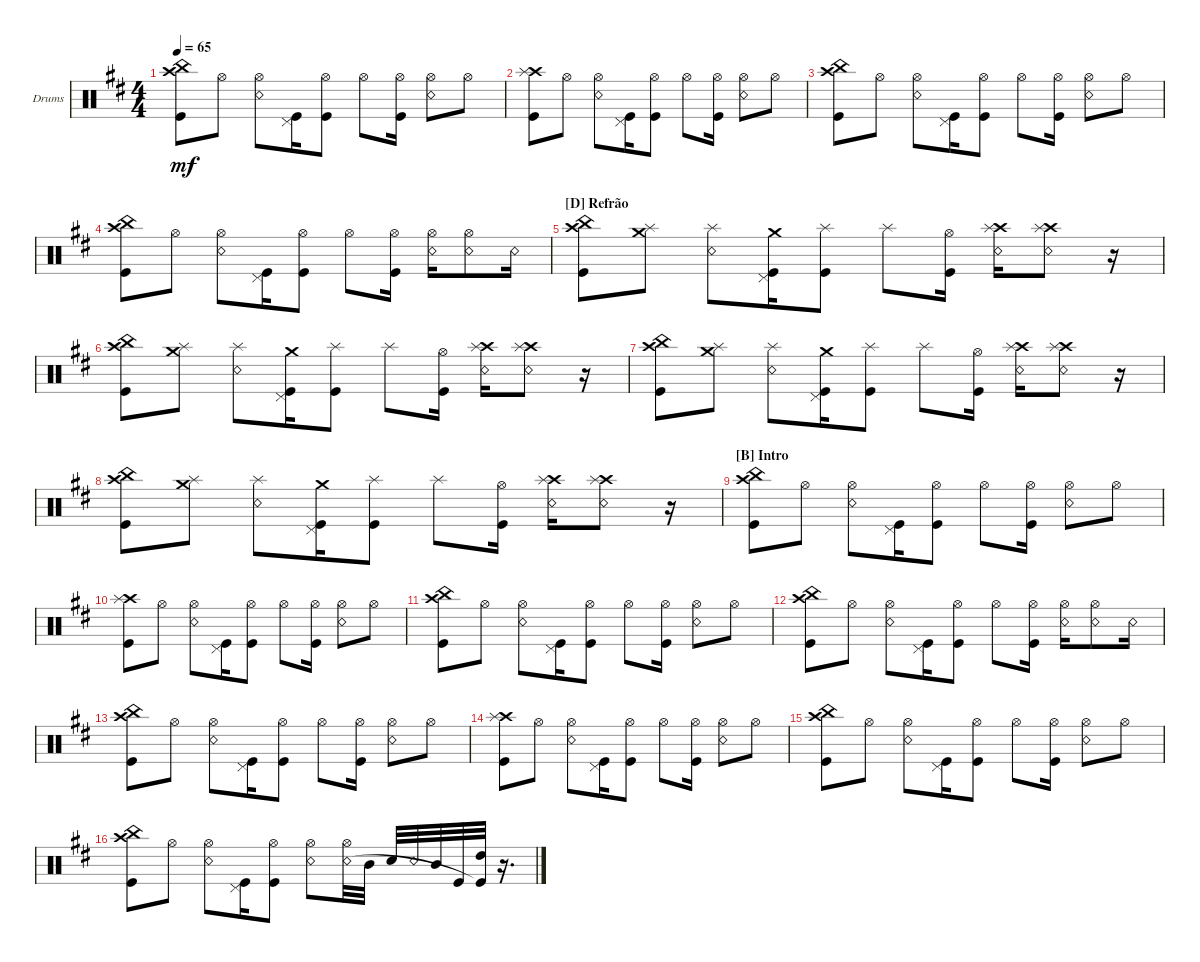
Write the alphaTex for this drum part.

\defaultSystemsLayout 4
\bracketExtendMode groupsimilarinstruments
\firstSystemTrackNameOrientation horizontal
\otherSystemsTrackNameOrientation horizontal
\track ("Bateria" "Drums") {multiBarRest instrument percussion}
\staff {score}
\articulation defaults
\ts (4 4)
\tempo 65
\clef neutral
\ks d
("Kick (hit)" "Crash high (hit)" "China (hit)").8{dy mf} "Hi-Hat (open)".8 ("Hi-Hat (open)" "Snare (rim shot)").8 ("Kick (hit)" "Pedal Hi-Hat (hit)").16 ("Hi-Hat (open)" "Kick (hit)").8 "Hi-Hat (open)".8 ("Hi-Hat (open)" "Kick (hit)").16 ("Hi-Hat (open)" "Snare (rim shot)").8 "Hi-Hat (open)".8 |
("Kick (hit)" "Crash high (hit)" "Splash (hit)").8 "Hi-Hat (open)".8 ("Hi-Hat (open)" "Snare (rim shot)").8 ("Kick (hit)" "Pedal Hi-Hat (hit)").16 ("Hi-Hat (open)" "Kick (hit)").8 "Hi-Hat (open)".8 ("Hi-Hat (open)" "Kick (hit)").16 ("Hi-Hat (open)" "Snare (rim shot)").8 "Hi-Hat (open)".8 |
("Kick (hit)" "Crash high (hit)" "China (hit)").8 "Hi-Hat (open)".8 ("Hi-Hat (open)" "Snare (rim shot)").8 ("Kick (hit)" "Pedal Hi-Hat (hit)").16 ("Hi-Hat (open)" "Kick (hit)").8 "Hi-Hat (open)".8 ("Hi-Hat (open)" "Kick (hit)").16 ("Hi-Hat (open)" "Snare (rim shot)").8 "Hi-Hat (open)".8 |
("Kick (hit)" "Crash high (hit)" "China (hit)").8 "Hi-Hat (open)".8 ("Hi-Hat (open)" "Snare (rim shot)").8 ("Kick (hit)" "Pedal Hi-Hat (hit)").16 ("Hi-Hat (open)" "Kick (hit)").8 "Hi-Hat (open)".8 ("Hi-Hat (open)" "Kick (hit)").16 ("Hi-Hat (open)" "Snare (rim shot)").16 ("Hi-Hat (open)" "Snare (rim shot)").8 "Snare (rim shot)".16 |
\section ("D" "Refrão")
("Kick (hit)" "Crash high (hit)" "China (hit)").8 ("Splash (hit)" "Crash medium (hit)").8 ("Snare (rim shot)" "Splash (hit)").8 ("Kick (hit)" "Pedal Hi-Hat (hit)" "Crash medium (hit)").16 ("Kick (hit)" "Splash (hit)").8 "Splash (hit)".8 ("Hi-Hat (open)" "Kick (hit)").16 ("Snare (rim shot)" "Crash high (hit)" "Splash (hit)").16 ("Crash high (hit)" "Splash (hit)" "Snare (rim shot)").8 r.16 |
("Kick (hit)" "Crash high (hit)" "China (hit)").8 ("Splash (hit)" "Crash medium (hit)").8 ("Snare (rim shot)" "Splash (hit)").8 ("Kick (hit)" "Pedal Hi-Hat (hit)" "Crash medium (hit)").16 ("Kick (hit)" "Splash (hit)").8 "Splash (hit)".8 ("Hi-Hat (open)" "Kick (hit)").16 ("Snare (rim shot)" "Crash high (hit)" "Splash (hit)").16 ("Crash high (hit)" "Splash (hit)" "Snare (rim shot)").8 r.16 |
("Kick (hit)" "Crash high (hit)" "China (hit)").8 ("Splash (hit)" "Crash medium (hit)").8 ("Snare (rim shot)" "Splash (hit)").8 ("Kick (hit)" "Pedal Hi-Hat (hit)" "Crash medium (hit)").16 ("Kick (hit)" "Splash (hit)").8 "Splash (hit)".8 ("Hi-Hat (open)" "Kick (hit)").16 ("Snare (rim shot)" "Crash high (hit)" "Splash (hit)").16 ("Crash high (hit)" "Splash (hit)" "Snare (rim shot)").8 r.16 |
("Kick (hit)" "Crash high (hit)" "China (hit)").8 ("Splash (hit)" "Crash medium (hit)").8 ("Snare (rim shot)" "Splash (hit)").8 ("Kick (hit)" "Pedal Hi-Hat (hit)" "Crash medium (hit)").16 ("Kick (hit)" "Splash (hit)").8 "Splash (hit)".8 ("Hi-Hat (open)" "Kick (hit)").16 ("Snare (rim shot)" "Crash high (hit)" "Splash (hit)").16 ("Crash high (hit)" "Splash (hit)" "Snare (rim shot)").8 r.16 |
\section ("B" "Intro")
("Kick (hit)" "Crash high (hit)" "China (hit)").8 "Hi-Hat (open)".8 ("Hi-Hat (open)" "Snare (rim shot)").8 ("Kick (hit)" "Pedal Hi-Hat (hit)").16 ("Hi-Hat (open)" "Kick (hit)").8 "Hi-Hat (open)".8 ("Hi-Hat (open)" "Kick (hit)").16 ("Hi-Hat (open)" "Snare (rim shot)").8 "Hi-Hat (open)".8 |
("Kick (hit)" "Crash high (hit)" "Splash (hit)").8 "Hi-Hat (open)".8 ("Hi-Hat (open)" "Snare (rim shot)").8 ("Kick (hit)" "Pedal Hi-Hat (hit)").16 ("Hi-Hat (open)" "Kick (hit)").8 "Hi-Hat (open)".8 ("Hi-Hat (open)" "Kick (hit)").16 ("Hi-Hat (open)" "Snare (rim shot)").8 "Hi-Hat (open)".8 |
("Kick (hit)" "Crash high (hit)" "China (hit)").8 "Hi-Hat (open)".8 ("Hi-Hat (open)" "Snare (rim shot)").8 ("Kick (hit)" "Pedal Hi-Hat (hit)").16 ("Hi-Hat (open)" "Kick (hit)").8 "Hi-Hat (open)".8 ("Hi-Hat (open)" "Kick (hit)").16 ("Hi-Hat (open)" "Snare (rim shot)").8 "Hi-Hat (open)".8 |
("Kick (hit)" "Crash high (hit)" "China (hit)").8 "Hi-Hat (open)".8 ("Hi-Hat (open)" "Snare (rim shot)").8 ("Kick (hit)" "Pedal Hi-Hat (hit)").16 ("Hi-Hat (open)" "Kick (hit)").8 "Hi-Hat (open)".8 ("Hi-Hat (open)" "Kick (hit)").16 ("Hi-Hat (open)" "Snare (rim shot)").16 ("Hi-Hat (open)" "Snare (rim shot)").8 "Snare (rim shot)".16 |
("Kick (hit)" "Crash high (hit)" "China (hit)").8 "Hi-Hat (open)".8 ("Hi-Hat (open)" "Snare (rim shot)").8 ("Kick (hit)" "Pedal Hi-Hat (hit)").16 ("Hi-Hat (open)" "Kick (hit)").8 "Hi-Hat (open)".8 ("Hi-Hat (open)" "Kick (hit)").16 ("Hi-Hat (open)" "Snare (rim shot)").8 "Hi-Hat (open)".8 |
("Kick (hit)" "Crash high (hit)" "Splash (hit)").8 "Hi-Hat (open)".8 ("Hi-Hat (open)" "Snare (rim shot)").8 ("Kick (hit)" "Pedal Hi-Hat (hit)").16 ("Hi-Hat (open)" "Kick (hit)").8 "Hi-Hat (open)".8 ("Hi-Hat (open)" "Kick (hit)").16 ("Hi-Hat (open)" "Snare (rim shot)").8 "Hi-Hat (open)".8 |
("Kick (hit)" "Crash high (hit)" "China (hit)").8 "Hi-Hat (open)".8 ("Hi-Hat (open)" "Snare (rim shot)").8 ("Kick (hit)" "Pedal Hi-Hat (hit)").16 ("Hi-Hat (open)" "Kick (hit)").8 "Hi-Hat (open)".8 ("Hi-Hat (open)" "Kick (hit)").16 ("Hi-Hat (open)" "Snare (rim shot)").8 "Hi-Hat (open)".8 |
("Kick (hit)" "Crash high (hit)" "China (hit)").8 "Hi-Hat (open)".8 ("Hi-Hat (open)" "Snare (rim shot)").8 ("Kick (hit)" "Pedal Hi-Hat (hit)").16 ("Hi-Hat (open)" "Kick (hit)").8 ("Hi-Hat (open)" "Snare (rim shot)").8 ("Hi-Hat (open)" "Snare (rim shot)").32 "Mid Tom (hit)".32 "Snare (hit) 2".32 "Snare (rim shot)".32 "Mid Tom (hit)".32 "Kick (hit)".32 ("High Tom (hit)" "Kick (hit)"{t}).32 r.16{d}
